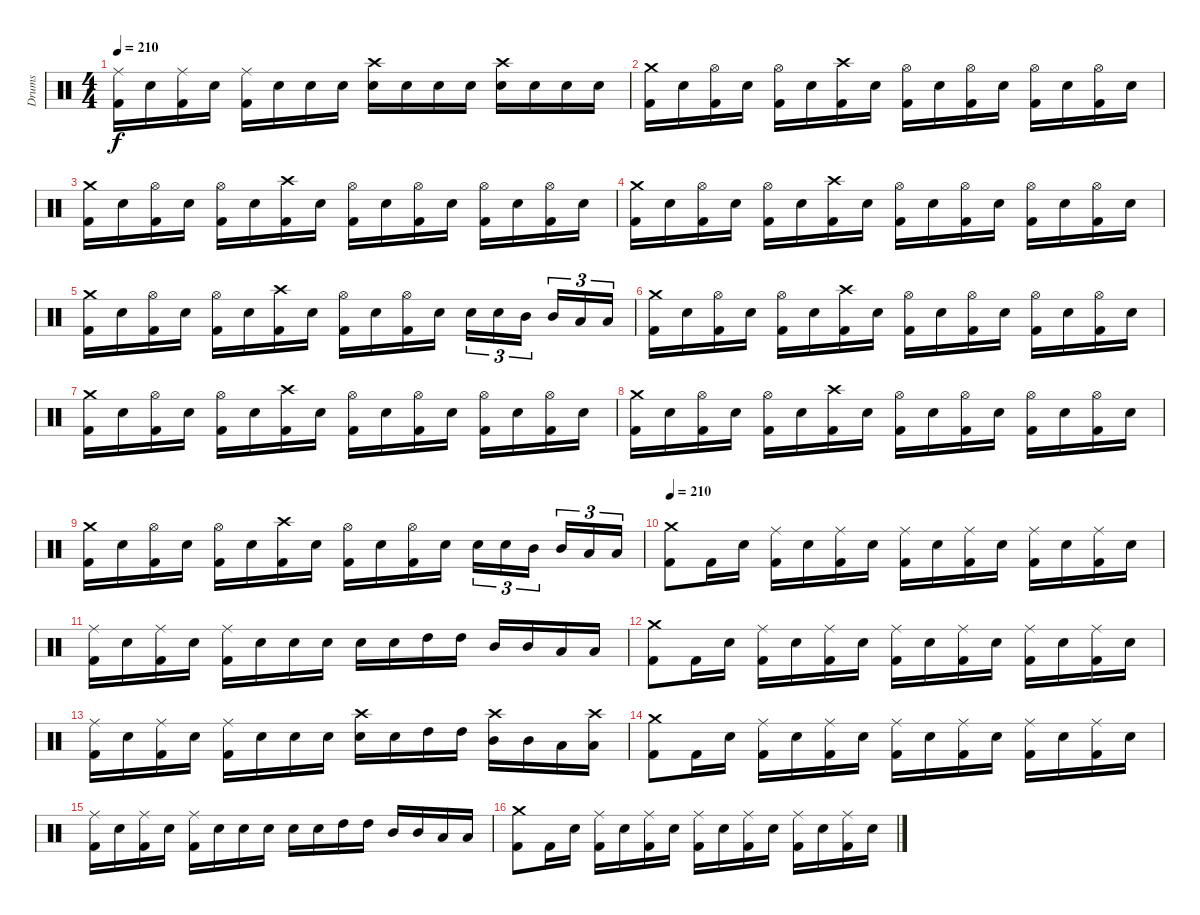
\track ("Drums" "Drums") {instrument percussion}
\staff {score}
\articulation defaults
\ts (4 4)
\tempo 210
\clef neutral
\ks c
("Kick (hit) 2" "Ride (middle)").16{dy f} "Electric Snare (hit)".16 ("Kick (hit) 2" "Ride (middle)").16 "Electric Snare (hit)".16 ("Kick (hit) 2" "Ride (middle)").16 "Electric Snare (hit)".16 "Electric Snare (hit)".16 "Electric Snare (hit)".16 ("Crash high (hit)" "Electric Snare (hit)").16 "Electric Snare (hit)".16 "Electric Snare (hit)".16 "Electric Snare (hit)".16 ("Crash high (hit)" "Electric Snare (hit)").16 "Electric Snare (hit)".16 "Electric Snare (hit)".16 "Electric Snare (hit)".16 |
("Kick (hit) 2" "Crash medium (hit)").16 "Electric Snare (hit)".16 ("Kick (hit) 2" "Hi-Hat (open)").16 "Electric Snare (hit)".16 ("Kick (hit) 2" "Hi-Hat (open)").16 "Electric Snare (hit)".16 ("Kick (hit) 2" "Crash high (hit)").16 "Electric Snare (hit)".16 ("Kick (hit) 2" "Hi-Hat (open)").16 "Electric Snare (hit)".16 ("Kick (hit) 2" "Hi-Hat (open)").16 "Electric Snare (hit)".16 ("Kick (hit) 2" "Hi-Hat (open)").16 "Electric Snare (hit)".16 ("Kick (hit) 2" "Hi-Hat (open)").16 "Electric Snare (hit)".16 |
("Kick (hit) 2" "Crash medium (hit)").16 "Electric Snare (hit)".16 ("Kick (hit) 2" "Hi-Hat (open)").16 "Electric Snare (hit)".16 ("Kick (hit) 2" "Hi-Hat (open)").16 "Electric Snare (hit)".16 ("Kick (hit) 2" "Crash high (hit)").16 "Electric Snare (hit)".16 ("Kick (hit) 2" "Hi-Hat (open)").16 "Electric Snare (hit)".16 ("Kick (hit) 2" "Hi-Hat (open)").16 "Electric Snare (hit)".16 ("Kick (hit) 2" "Hi-Hat (open)").16 "Electric Snare (hit)".16 ("Kick (hit) 2" "Hi-Hat (open)").16 "Electric Snare (hit)".16 |
("Kick (hit) 2" "Crash medium (hit)").16 "Electric Snare (hit)".16 ("Kick (hit) 2" "Hi-Hat (open)").16 "Electric Snare (hit)".16 ("Kick (hit) 2" "Hi-Hat (open)").16 "Electric Snare (hit)".16 ("Kick (hit) 2" "Crash high (hit)").16 "Electric Snare (hit)".16 ("Kick (hit) 2" "Hi-Hat (open)").16 "Electric Snare (hit)".16 ("Kick (hit) 2" "Hi-Hat (open)").16 "Electric Snare (hit)".16 ("Kick (hit) 2" "Hi-Hat (open)").16 "Electric Snare (hit)".16 ("Kick (hit) 2" "Hi-Hat (open)").16 "Electric Snare (hit)".16 |
("Kick (hit) 2" "Crash medium (hit)").16 "Electric Snare (hit)".16 ("Kick (hit) 2" "Hi-Hat (open)").16 "Electric Snare (hit)".16 ("Kick (hit) 2" "Hi-Hat (open)").16 "Electric Snare (hit)".16 ("Kick (hit) 2" "Crash high (hit)").16 "Electric Snare (hit)".16 ("Kick (hit) 2" "Hi-Hat (open)").16 "Electric Snare (hit)".16 ("Kick (hit) 2" "Hi-Hat (open)").16 "Electric Snare (hit)".16 "Electric Snare (hit)".16{tu (3 2)} "Electric Snare (hit)".16{tu (3 2)} "Mid Tom (hit)".16{tu (3 2)} "Mid Tom (hit)".16{tu (3 2)} "Low Tom (hit)".16{tu (3 2)} "Low Tom (hit)".16{tu (3 2)} |
("Kick (hit) 2" "Crash medium (hit)").16 "Electric Snare (hit)".16 ("Kick (hit) 2" "Hi-Hat (open)").16 "Electric Snare (hit)".16 ("Kick (hit) 2" "Hi-Hat (open)").16 "Electric Snare (hit)".16 ("Kick (hit) 2" "Crash high (hit)").16 "Electric Snare (hit)".16 ("Kick (hit) 2" "Hi-Hat (open)").16 "Electric Snare (hit)".16 ("Kick (hit) 2" "Hi-Hat (open)").16 "Electric Snare (hit)".16 ("Kick (hit) 2" "Hi-Hat (open)").16 "Electric Snare (hit)".16 ("Kick (hit) 2" "Hi-Hat (open)").16 "Electric Snare (hit)".16 |
("Kick (hit) 2" "Crash medium (hit)").16 "Electric Snare (hit)".16 ("Kick (hit) 2" "Hi-Hat (open)").16 "Electric Snare (hit)".16 ("Kick (hit) 2" "Hi-Hat (open)").16 "Electric Snare (hit)".16 ("Kick (hit) 2" "Crash high (hit)").16 "Electric Snare (hit)".16 ("Kick (hit) 2" "Hi-Hat (open)").16 "Electric Snare (hit)".16 ("Kick (hit) 2" "Hi-Hat (open)").16 "Electric Snare (hit)".16 ("Kick (hit) 2" "Hi-Hat (open)").16 "Electric Snare (hit)".16 ("Kick (hit) 2" "Hi-Hat (open)").16 "Electric Snare (hit)".16 |
("Kick (hit) 2" "Crash medium (hit)").16 "Electric Snare (hit)".16 ("Kick (hit) 2" "Hi-Hat (open)").16 "Electric Snare (hit)".16 ("Kick (hit) 2" "Hi-Hat (open)").16 "Electric Snare (hit)".16 ("Kick (hit) 2" "Crash high (hit)").16 "Electric Snare (hit)".16 ("Kick (hit) 2" "Hi-Hat (open)").16 "Electric Snare (hit)".16 ("Kick (hit) 2" "Hi-Hat (open)").16 "Electric Snare (hit)".16 ("Kick (hit) 2" "Hi-Hat (open)").16 "Electric Snare (hit)".16 ("Kick (hit) 2" "Hi-Hat (open)").16 "Electric Snare (hit)".16 |
("Kick (hit) 2" "Crash medium (hit)").16 "Electric Snare (hit)".16 ("Kick (hit) 2" "Hi-Hat (open)").16 "Electric Snare (hit)".16 ("Kick (hit) 2" "Hi-Hat (open)").16 "Electric Snare (hit)".16 ("Kick (hit) 2" "Crash high (hit)").16 "Electric Snare (hit)".16 ("Kick (hit) 2" "Hi-Hat (open)").16 "Electric Snare (hit)".16 ("Kick (hit) 2" "Hi-Hat (open)").16 "Electric Snare (hit)".16 "Electric Snare (hit)".16{tu (3 2)} "Electric Snare (hit)".16{tu (3 2)} "Mid Tom (hit)".16{tu (3 2)} "Mid Tom (hit)".16{tu (3 2)} "Low Tom (hit)".16{tu (3 2)} "Low Tom (hit)".16{tu (3 2)} |
\tempo 210
("Kick (hit) 2" "Crash medium (hit)").8 "Kick (hit) 2".16 "Electric Snare (hit)".16 ("Kick (hit) 2" "Ride (middle)").16 "Electric Snare (hit)".16 ("Kick (hit) 2" "Ride (middle)").16 "Electric Snare (hit)".16 ("Kick (hit) 2" "Ride (middle)").16 "Electric Snare (hit)".16 ("Kick (hit) 2" "Ride (middle)").16 "Electric Snare (hit)".16 ("Kick (hit) 2" "Ride (middle)").16 "Electric Snare (hit)".16 ("Kick (hit) 2" "Ride (middle)").16 "Electric Snare (hit)".16 |
("Kick (hit) 2" "Ride (middle)").16 "Electric Snare (hit)".16 ("Kick (hit) 2" "Ride (middle)").16 "Electric Snare (hit)".16 ("Kick (hit) 2" "Ride (middle)").16 "Electric Snare (hit)".16 "Electric Snare (hit)".16 "Electric Snare (hit)".16 "Electric Snare (hit)".16 "Electric Snare (hit)".16 "High Tom (hit)".16 "High Tom (hit)".16 "Mid Tom (hit)".16 "Mid Tom (hit)".16 "Low Tom (hit)".16 "Low Tom (hit)".16 |
("Kick (hit) 2" "Crash medium (hit)").8 "Kick (hit) 2".16 "Electric Snare (hit)".16 ("Kick (hit) 2" "Ride (middle)").16 "Electric Snare (hit)".16 ("Kick (hit) 2" "Ride (middle)").16 "Electric Snare (hit)".16 ("Kick (hit) 2" "Ride (middle)").16 "Electric Snare (hit)".16 ("Kick (hit) 2" "Ride (middle)").16 "Electric Snare (hit)".16 ("Kick (hit) 2" "Ride (middle)").16 "Electric Snare (hit)".16 ("Kick (hit) 2" "Ride (middle)").16 "Electric Snare (hit)".16 |
("Kick (hit) 2" "Ride (middle)").16 "Electric Snare (hit)".16 ("Kick (hit) 2" "Ride (middle)").16 "Electric Snare (hit)".16 ("Kick (hit) 2" "Ride (middle)").16 "Electric Snare (hit)".16 "Electric Snare (hit)".16 "Electric Snare (hit)".16 ("Crash high (hit)" "Electric Snare (hit)").16 "Electric Snare (hit)".16 "High Tom (hit)".16 "High Tom (hit)".16 ("Crash high (hit)" "Mid Tom (hit)").16 "Mid Tom (hit)".16 "Low Tom (hit)".16 ("Crash high (hit)" "Low Tom (hit)").16 |
("Kick (hit) 2" "Crash medium (hit)").8 "Kick (hit) 2".16 "Electric Snare (hit)".16 ("Kick (hit) 2" "Ride (middle)").16 "Electric Snare (hit)".16 ("Kick (hit) 2" "Ride (middle)").16 "Electric Snare (hit)".16 ("Kick (hit) 2" "Ride (middle)").16 "Electric Snare (hit)".16 ("Kick (hit) 2" "Ride (middle)").16 "Electric Snare (hit)".16 ("Kick (hit) 2" "Ride (middle)").16 "Electric Snare (hit)".16 ("Kick (hit) 2" "Ride (middle)").16 "Electric Snare (hit)".16 |
("Kick (hit) 2" "Ride (middle)").16 "Electric Snare (hit)".16 ("Kick (hit) 2" "Ride (middle)").16 "Electric Snare (hit)".16 ("Kick (hit) 2" "Ride (middle)").16 "Electric Snare (hit)".16 "Electric Snare (hit)".16 "Electric Snare (hit)".16 "Electric Snare (hit)".16 "Electric Snare (hit)".16 "High Tom (hit)".16 "High Tom (hit)".16 "Mid Tom (hit)".16 "Mid Tom (hit)".16 "Low Tom (hit)".16 "Low Tom (hit)".16 |
("Kick (hit) 2" "Crash medium (hit)").8 "Kick (hit) 2".16 "Electric Snare (hit)".16 ("Kick (hit) 2" "Ride (middle)").16 "Electric Snare (hit)".16 ("Kick (hit) 2" "Ride (middle)").16 "Electric Snare (hit)".16 ("Kick (hit) 2" "Ride (middle)").16 "Electric Snare (hit)".16 ("Kick (hit) 2" "Ride (middle)").16 "Electric Snare (hit)".16 ("Kick (hit) 2" "Ride (middle)").16 "Electric Snare (hit)".16 ("Kick (hit) 2" "Ride (middle)").16 "Electric Snare (hit)".16
